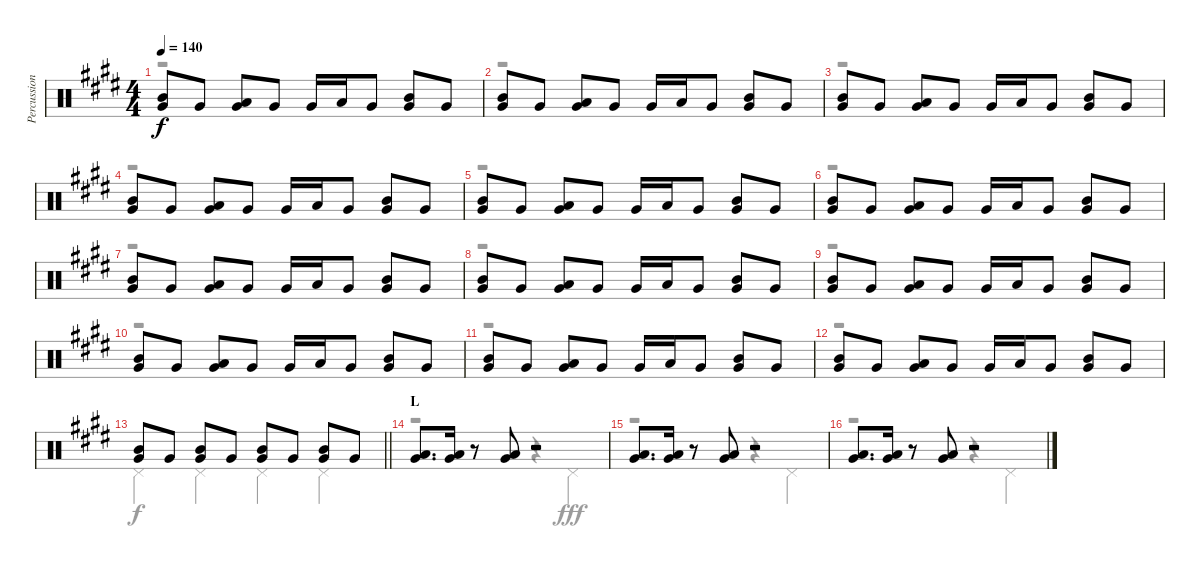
\track ("Percussion" "Percussion") {instrument percussion}
\staff {score}
\articulation defaults
\voice
\ts (4 4)
\tempo 140
\clef neutral
\ks e
("Mid Tom (hit)" "Very Low Tom (hit)").8{dy f} "Very Low Tom (hit)".8 ("Low Tom (hit)" "Very Low Tom (hit)").8 "Very Low Tom (hit)".8 "Very Low Tom (hit)".16 "Low Tom (hit)".16 "Very Low Tom (hit)".8 ("Mid Tom (hit)" "Very Low Tom (hit)").8 "Very Low Tom (hit)".8 |
("Mid Tom (hit)" "Very Low Tom (hit)").8 "Very Low Tom (hit)".8 ("Low Tom (hit)" "Very Low Tom (hit)").8 "Very Low Tom (hit)".8 "Very Low Tom (hit)".16 "Low Tom (hit)".16 "Very Low Tom (hit)".8 ("Mid Tom (hit)" "Very Low Tom (hit)").8 "Very Low Tom (hit)".8 |
("Mid Tom (hit)" "Very Low Tom (hit)").8 "Very Low Tom (hit)".8 ("Low Tom (hit)" "Very Low Tom (hit)").8 "Very Low Tom (hit)".8 "Very Low Tom (hit)".16 "Low Tom (hit)".16 "Very Low Tom (hit)".8 ("Mid Tom (hit)" "Very Low Tom (hit)").8 "Very Low Tom (hit)".8 |
("Mid Tom (hit)" "Very Low Tom (hit)").8 "Very Low Tom (hit)".8 ("Low Tom (hit)" "Very Low Tom (hit)").8 "Very Low Tom (hit)".8 "Very Low Tom (hit)".16 "Low Tom (hit)".16 "Very Low Tom (hit)".8 ("Mid Tom (hit)" "Very Low Tom (hit)").8 "Very Low Tom (hit)".8 |
("Mid Tom (hit)" "Very Low Tom (hit)").8 "Very Low Tom (hit)".8 ("Low Tom (hit)" "Very Low Tom (hit)").8 "Very Low Tom (hit)".8 "Very Low Tom (hit)".16 "Low Tom (hit)".16 "Very Low Tom (hit)".8 ("Mid Tom (hit)" "Very Low Tom (hit)").8 "Very Low Tom (hit)".8 |
("Mid Tom (hit)" "Very Low Tom (hit)").8 "Very Low Tom (hit)".8 ("Low Tom (hit)" "Very Low Tom (hit)").8 "Very Low Tom (hit)".8 "Very Low Tom (hit)".16 "Low Tom (hit)".16 "Very Low Tom (hit)".8 ("Mid Tom (hit)" "Very Low Tom (hit)").8 "Very Low Tom (hit)".8 |
("Mid Tom (hit)" "Very Low Tom (hit)").8 "Very Low Tom (hit)".8 ("Low Tom (hit)" "Very Low Tom (hit)").8 "Very Low Tom (hit)".8 "Very Low Tom (hit)".16 "Low Tom (hit)".16 "Very Low Tom (hit)".8 ("Mid Tom (hit)" "Very Low Tom (hit)").8 "Very Low Tom (hit)".8 |
("Mid Tom (hit)" "Very Low Tom (hit)").8 "Very Low Tom (hit)".8 ("Low Tom (hit)" "Very Low Tom (hit)").8 "Very Low Tom (hit)".8 "Very Low Tom (hit)".16 "Low Tom (hit)".16 "Very Low Tom (hit)".8 ("Mid Tom (hit)" "Very Low Tom (hit)").8 "Very Low Tom (hit)".8 |
("Mid Tom (hit)" "Very Low Tom (hit)").8 "Very Low Tom (hit)".8 ("Low Tom (hit)" "Very Low Tom (hit)").8 "Very Low Tom (hit)".8 "Very Low Tom (hit)".16 "Low Tom (hit)".16 "Very Low Tom (hit)".8 ("Mid Tom (hit)" "Very Low Tom (hit)").8 "Very Low Tom (hit)".8 |
("Mid Tom (hit)" "Very Low Tom (hit)").8 "Very Low Tom (hit)".8 ("Low Tom (hit)" "Very Low Tom (hit)").8 "Very Low Tom (hit)".8 "Very Low Tom (hit)".16 "Low Tom (hit)".16 "Very Low Tom (hit)".8 ("Mid Tom (hit)" "Very Low Tom (hit)").8 "Very Low Tom (hit)".8 |
("Mid Tom (hit)" "Very Low Tom (hit)").8 "Very Low Tom (hit)".8 ("Low Tom (hit)" "Very Low Tom (hit)").8 "Very Low Tom (hit)".8 "Very Low Tom (hit)".16 "Low Tom (hit)".16 "Very Low Tom (hit)".8 ("Mid Tom (hit)" "Very Low Tom (hit)").8 "Very Low Tom (hit)".8 |
("Mid Tom (hit)" "Very Low Tom (hit)").8 "Very Low Tom (hit)".8 ("Low Tom (hit)" "Very Low Tom (hit)").8 "Very Low Tom (hit)".8 "Very Low Tom (hit)".16 "Low Tom (hit)".16 "Very Low Tom (hit)".8 ("Mid Tom (hit)" "Very Low Tom (hit)").8 "Very Low Tom (hit)".8 |
\barLineRight lightlight
("Mid Tom (hit)" "Very Low Tom (hit)").8 "Very Low Tom (hit)".8 ("Mid Tom (hit)" "Very Low Tom (hit)").8 "Very Low Tom (hit)".8 ("Mid Tom (hit)" "Very Low Tom (hit)").8 "Very Low Tom (hit)".8 ("Mid Tom (hit)" "Very Low Tom (hit)").8 "Very Low Tom (hit)".8 |
\section ("" "L")
("Low Tom (hit)" "Very Low Tom (hit)").8{d} ("Low Tom (hit)" "Very Low Tom (hit)").16 r.8 ("Low Tom (hit)" "Very Low Tom (hit)").8 r.2 |
("Low Tom (hit)" "Very Low Tom (hit)").8{d} ("Low Tom (hit)" "Very Low Tom (hit)").16 r.8 ("Low Tom (hit)" "Very Low Tom (hit)").8 r.2 |
("Low Tom (hit)" "Very Low Tom (hit)").8{d} ("Low Tom (hit)" "Very Low Tom (hit)").16 r.8 ("Low Tom (hit)" "Very Low Tom (hit)").8 r.2
\voice
\clef neutral
\ottava regular
\simile none
\ks e
r.1{dy fff} |
r.1 |
r.1 |
r.1 |
r.1 |
r.1 |
r.1 |
r.1 |
r.1 |
r.1 |
r.1 |
r.1 |
\barLineRight lightlight "Pedal Hi-Hat (hit)".4{dy f} "Pedal Hi-Hat (hit)".4 "Pedal Hi-Hat (hit)".4 "Pedal Hi-Hat (hit)".4
|
r.2 r.4 "Pedal Hi-Hat (hit)".4{dy fff} |
r.2 r.4 "Pedal Hi-Hat (hit)".4 |
r.2 r.4 "Pedal Hi-Hat (hit)".4
